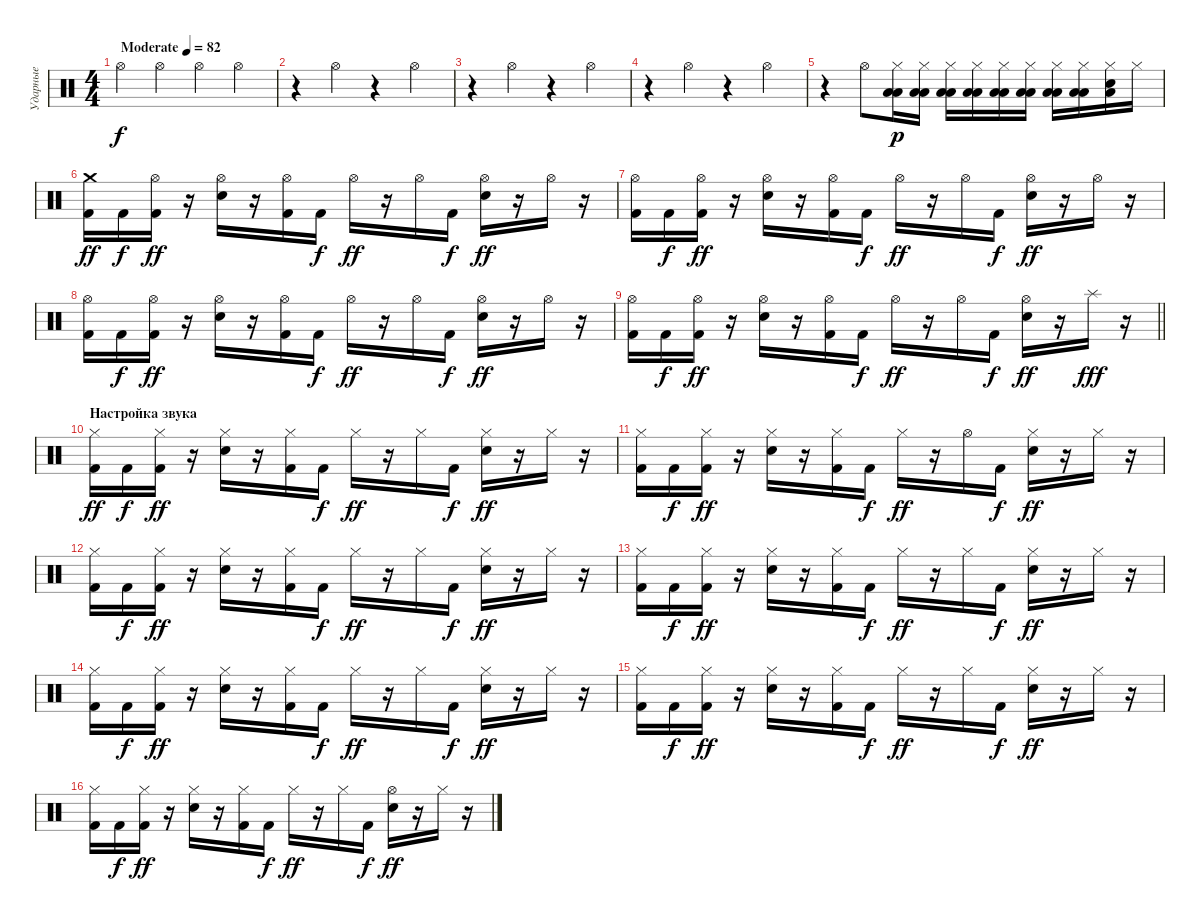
\track ("Ударные" "Ударные") {instrument percussion}
\staff {score}
\articulation defaults
\ts (4 4)
\tempo (82 "Moderate")
\clef neutral
\ks c "Hi-Hat (open)".4{dy f} "Hi-Hat (open)".4 "Hi-Hat (open)".4 "Hi-Hat (open)".4
|
r.4 "Hi-Hat (open)".4 r.4 "Hi-Hat (open)".4 |
r.4 "Hi-Hat (open)".4 r.4 "Hi-Hat (open)".4 |
r.4 "Hi-Hat (open)".4 r.4 "Hi-Hat (open)".4 |
r.4 "Hi-Hat (open)".8 ("Low Floor Tom (hit)" "Low Floor Tom (hit)" "Hi-Hat (closed)").16{dy p} ("Low Floor Tom (hit)" "Low Floor Tom (hit)" "Hi-Hat (closed)").16 ("Low Floor Tom (hit)" "Low Floor Tom (hit)" "Hi-Hat (closed)").16 ("Low Floor Tom (hit)" "Low Floor Tom (hit)" "Hi-Hat (closed)").16 ("Low Floor Tom (hit)" "Low Floor Tom (hit)" "Hi-Hat (closed)").16 ("Low Floor Tom (hit)" "Low Floor Tom (hit)" "Hi-Hat (closed)").16 ("Low Floor Tom (hit)" "Low Floor Tom (hit)" "Hi-Hat (closed)").16 ("Low Floor Tom (hit)" "Low Tom (hit)" "Hi-Hat (closed)").16 ("Low Floor Tom (hit)" "Electric Snare (hit)" "Hi-Hat (closed)").16 "Hi-Hat (closed)".16 |
("Crash medium (hit)" "Kick (hit) 2").16{dy ff} "Kick (hit) 2".16{dy f} ("Hi-Hat (open)" "Kick (hit) 2").16{dy ff} r.16 ("Hi-Hat (open)" "Electric Snare (hit)").16 r.16 ("Hi-Hat (open)" "Kick (hit) 2").16 "Kick (hit) 2".16{dy f} "Hi-Hat (open)".16{dy ff} r.16 "Hi-Hat (open)".16 "Kick (hit) 2".16{dy f} ("Hi-Hat (open)" "Electric Snare (hit)").16{dy ff} r.16 "Hi-Hat (open)".16 r.16 |
("Hi-Hat (open)" "Kick (hit) 2").16 "Kick (hit) 2".16{dy f} ("Hi-Hat (open)" "Kick (hit) 2").16{dy ff} r.16 ("Hi-Hat (open)" "Electric Snare (hit)").16 r.16 ("Hi-Hat (open)" "Kick (hit) 2").16 "Kick (hit) 2".16{dy f} "Hi-Hat (open)".16{dy ff} r.16 "Hi-Hat (open)".16 "Kick (hit) 2".16{dy f} ("Hi-Hat (open)" "Electric Snare (hit)").16{dy ff} r.16 "Hi-Hat (open)".16 r.16 |
("Hi-Hat (open)" "Kick (hit) 2").16 "Kick (hit) 2".16{dy f} ("Hi-Hat (open)" "Kick (hit) 2").16{dy ff} r.16 ("Hi-Hat (open)" "Electric Snare (hit)").16 r.16 ("Hi-Hat (open)" "Kick (hit) 2").16 "Kick (hit) 2".16{dy f} "Hi-Hat (open)".16{dy ff} r.16 "Hi-Hat (open)".16 "Kick (hit) 2".16{dy f} ("Hi-Hat (open)" "Electric Snare (hit)").16{dy ff} r.16 "Hi-Hat (open)".16 r.16 |
\barLineRight lightlight
("Hi-Hat (open)" "Kick (hit) 2").16 "Kick (hit) 2".16{dy f} ("Hi-Hat (open)" "Kick (hit) 2").16{dy ff} r.16 ("Hi-Hat (open)" "Electric Snare (hit)").16 r.16 ("Hi-Hat (open)" "Kick (hit) 2").16 "Kick (hit) 2".16{dy f} "Hi-Hat (open)".16{dy ff} r.16 "Hi-Hat (open)".16 "Kick (hit) 2".16{dy f} ("Hi-Hat (open)" "Electric Snare (hit)").16{dy ff} r.16 "Splash (hit)".16{dy fff} r.16 |
\section ("" "Настройка звука")
("Hi-Hat (closed)" "Kick (hit) 2").16{dy ff} "Kick (hit) 2".16{dy f} ("Hi-Hat (closed)" "Kick (hit) 2").16{dy ff} r.16 ("Hi-Hat (closed)" "Electric Snare (hit)").16 r.16 ("Hi-Hat (closed)" "Kick (hit) 2").16 "Kick (hit) 2".16{dy f} "Hi-Hat (closed)".16{dy ff} r.16 "Hi-Hat (closed)".16 "Kick (hit) 2".16{dy f} ("Hi-Hat (closed)" "Electric Snare (hit)").16{dy ff} r.16 "Hi-Hat (closed)".16 r.16 |
("Hi-Hat (closed)" "Kick (hit) 2").16 "Kick (hit) 2".16{dy f} ("Hi-Hat (closed)" "Kick (hit) 2").16{dy ff} r.16 ("Hi-Hat (closed)" "Electric Snare (hit)").16 r.16 ("Hi-Hat (closed)" "Kick (hit) 2").16 "Kick (hit) 2".16{dy f} "Hi-Hat (closed)".16{dy ff} r.16 "Hi-Hat (open)".16 "Kick (hit) 2".16{dy f} ("Hi-Hat (closed)" "Electric Snare (hit)").16{dy ff} r.16 "Hi-Hat (closed)".16 r.16 |
("Hi-Hat (closed)" "Kick (hit) 2").16 "Kick (hit) 2".16{dy f} ("Hi-Hat (closed)" "Kick (hit) 2").16{dy ff} r.16 ("Hi-Hat (closed)" "Electric Snare (hit)").16 r.16 ("Hi-Hat (closed)" "Kick (hit) 2").16 "Kick (hit) 2".16{dy f} "Hi-Hat (closed)".16{dy ff} r.16 "Hi-Hat (closed)".16 "Kick (hit) 2".16{dy f} ("Hi-Hat (closed)" "Electric Snare (hit)").16{dy ff} r.16 "Hi-Hat (closed)".16 r.16 |
("Hi-Hat (closed)" "Kick (hit) 2").16 "Kick (hit) 2".16{dy f} ("Hi-Hat (closed)" "Kick (hit) 2").16{dy ff} r.16 ("Hi-Hat (closed)" "Electric Snare (hit)").16 r.16 ("Hi-Hat (closed)" "Kick (hit) 2").16 "Kick (hit) 2".16{dy f} "Hi-Hat (closed)".16{dy ff} r.16 "Hi-Hat (closed)".16 "Kick (hit) 2".16{dy f} ("Hi-Hat (closed)" "Electric Snare (hit)").16{dy ff} r.16 "Hi-Hat (closed)".16 r.16 |
("Hi-Hat (closed)" "Kick (hit) 2").16 "Kick (hit) 2".16{dy f} ("Hi-Hat (closed)" "Kick (hit) 2").16{dy ff} r.16 ("Hi-Hat (closed)" "Electric Snare (hit)").16 r.16 ("Hi-Hat (closed)" "Kick (hit) 2").16 "Kick (hit) 2".16{dy f} "Hi-Hat (closed)".16{dy ff} r.16 "Hi-Hat (closed)".16 "Kick (hit) 2".16{dy f} ("Hi-Hat (closed)" "Electric Snare (hit)").16{dy ff} r.16 "Hi-Hat (closed)".16 r.16 |
("Hi-Hat (closed)" "Kick (hit) 2").16 "Kick (hit) 2".16{dy f} ("Hi-Hat (closed)" "Kick (hit) 2").16{dy ff} r.16 ("Hi-Hat (closed)" "Electric Snare (hit)").16 r.16 ("Hi-Hat (closed)" "Kick (hit) 2").16 "Kick (hit) 2".16{dy f} "Hi-Hat (closed)".16{dy ff} r.16 "Hi-Hat (closed)".16 "Kick (hit) 2".16{dy f} ("Hi-Hat (closed)" "Electric Snare (hit)").16{dy ff} r.16 "Hi-Hat (closed)".16 r.16 |
("Hi-Hat (closed)" "Kick (hit) 2").16 "Kick (hit) 2".16{dy f} ("Hi-Hat (closed)" "Kick (hit) 2").16{dy ff} r.16 ("Hi-Hat (closed)" "Electric Snare (hit)").16 r.16 ("Hi-Hat (closed)" "Kick (hit) 2").16 "Kick (hit) 2".16{dy f} "Hi-Hat (closed)".16{dy ff} r.16 "Hi-Hat (closed)".16 "Kick (hit) 2".16{dy f} ("Hi-Hat (open)" "Electric Snare (hit)").16{dy ff} r.16 "Hi-Hat (closed)".16 r.16
